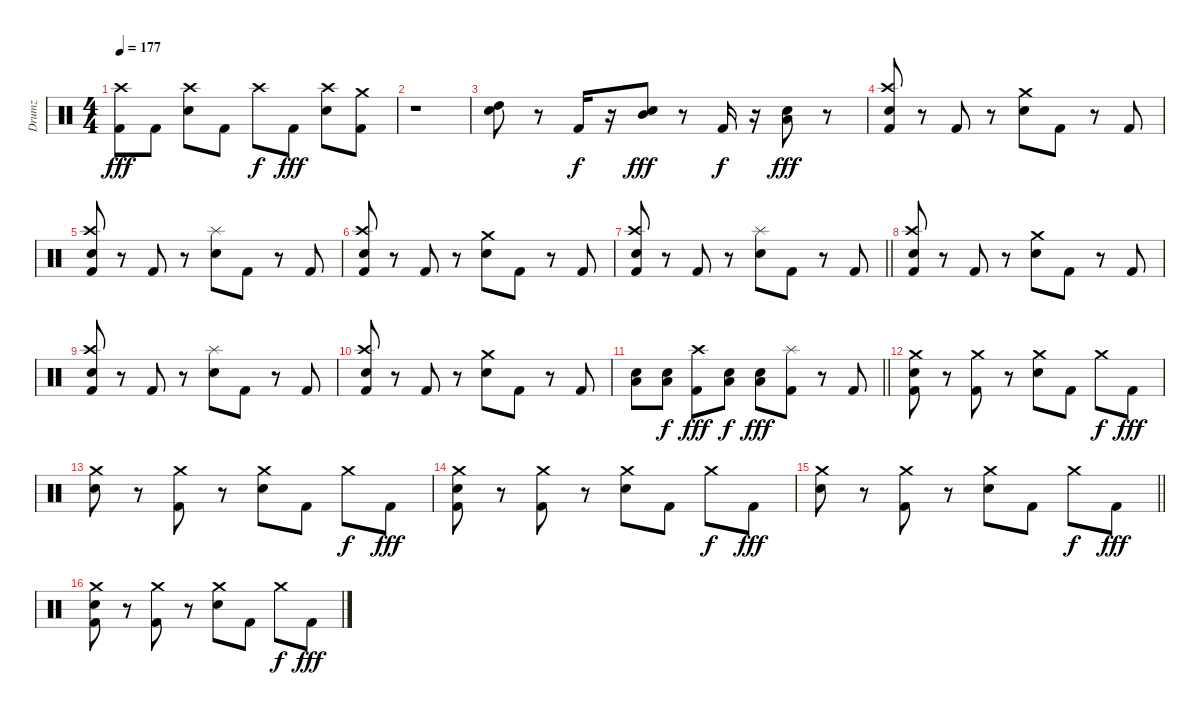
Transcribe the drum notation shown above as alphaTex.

\track ("Drumz" "Drumz") {instrument percussion}
\staff {score}
\articulation defaults
\ts (4 4)
\tempo 177
\clef neutral
\ks c
("Kick (hit) 2" "Crash high (hit)").8{dy fff} "Kick (hit) 2".8 ("Snare (hit) 2" "Crash high (hit)").8 "Kick (hit) 2".8 "Crash high (hit)".8{dy f} "Kick (hit) 2".8{dy fff} ("Snare (hit) 2" "Crash high (hit)").8 ("Crash medium (hit)" "Kick (hit) 2").8 |
r.1 |
("High Tom (hit)" "Snare (hit) 2").8 r.8 "Kick (hit) 2".16{dy f} r.16 ("Mid Tom (hit)" "Snare (hit) 2").8{dy fff} r.8 "Kick (hit) 2".16{dy f} r.16 ("Low Tom (hit)" "Snare (hit) 2").8{dy fff} r.8 |
("Crash high (hit)" "Snare (hit) 2" "Kick (hit) 2").8 r.8 "Kick (hit) 2".8 r.8 ("Crash medium (hit)" "Snare (hit) 2").8 "Kick (hit) 2".8 r.8 "Kick (hit) 2".8 |
("Crash high (hit)" "Snare (hit) 2" "Kick (hit) 2").8 r.8 "Kick (hit) 2".8 r.8 ("Splash (hit)" "Snare (hit) 2").8 "Kick (hit) 2".8 r.8 "Kick (hit) 2".8 |
("Crash high (hit)" "Snare (hit) 2" "Kick (hit) 2").8 r.8 "Kick (hit) 2".8 r.8 ("Crash medium (hit)" "Snare (hit) 2").8 "Kick (hit) 2".8 r.8 "Kick (hit) 2".8 |
\barLineRight lightlight
("Crash high (hit)" "Snare (hit) 2" "Kick (hit) 2").8 r.8 "Kick (hit) 2".8 r.8 ("Splash (hit)" "Snare (hit) 2").8 "Kick (hit) 2".8 r.8 "Kick (hit) 2".8 |
("Crash high (hit)" "Snare (hit) 2" "Kick (hit) 2").8 r.8 "Kick (hit) 2".8 r.8 ("Crash medium (hit)" "Snare (hit) 2").8 "Kick (hit) 2".8 r.8 "Kick (hit) 2".8 |
("Crash high (hit)" "Snare (hit) 2" "Kick (hit) 2").8 r.8 "Kick (hit) 2".8 r.8 ("Splash (hit)" "Snare (hit) 2").8 "Kick (hit) 2".8 r.8 "Kick (hit) 2".8 |
("Crash high (hit)" "Snare (hit) 2" "Kick (hit) 2").8 r.8 "Kick (hit) 2".8 r.8 ("Crash medium (hit)" "Snare (hit) 2").8 "Kick (hit) 2".8 r.8 "Kick (hit) 2".8 |
\barLineRight lightlight
("Snare (hit) 2" "Low Floor Tom (hit)").8 ("Snare (hit) 2" "Low Floor Tom (hit)").8{dy f} ("Crash high (hit)" "Kick (hit) 2").8{dy fff} ("Low Floor Tom (hit)" "Snare (hit) 2").8{dy f} ("Low Floor Tom (hit)" "Snare (hit) 2").8{dy fff} ("Splash (hit)" "Kick (hit) 2").8 r.8 "Kick (hit) 2".8 |
("Crash medium (hit)" "Snare (hit) 2" "Kick (hit) 2").8 r.8 ("Crash medium (hit)" "Kick (hit) 2").8 r.8 ("Crash medium (hit)" "Snare (hit) 2").8 "Kick (hit) 2".8 "Crash medium (hit)".8{dy f} "Kick (hit) 2".8{dy fff} |
("Crash medium (hit)" "Snare (hit) 2").8 r.8 ("Crash medium (hit)" "Kick (hit) 2").8 r.8 ("Crash medium (hit)" "Snare (hit) 2").8 "Kick (hit) 2".8 "Crash medium (hit)".8{dy f} "Kick (hit) 2".8{dy fff} |
("Crash medium (hit)" "Snare (hit) 2" "Kick (hit) 2").8 r.8 ("Crash medium (hit)" "Kick (hit) 2").8 r.8 ("Crash medium (hit)" "Snare (hit) 2").8 "Kick (hit) 2".8 "Crash medium (hit)".8{dy f} "Kick (hit) 2".8{dy fff} |
\barLineRight lightlight
("Crash medium (hit)" "Snare (hit) 2").8 r.8 ("Crash medium (hit)" "Kick (hit) 2").8 r.8 ("Crash medium (hit)" "Snare (hit) 2").8 "Kick (hit) 2".8 "Crash medium (hit)".8{dy f} "Kick (hit) 2".8{dy fff} |
("Crash medium (hit)" "Snare (hit) 2" "Kick (hit) 2").8 r.8 ("Crash medium (hit)" "Kick (hit) 2").8 r.8 ("Crash medium (hit)" "Snare (hit) 2").8 "Kick (hit) 2".8 "Crash medium (hit)".8{dy f} "Kick (hit) 2".8{dy fff}
